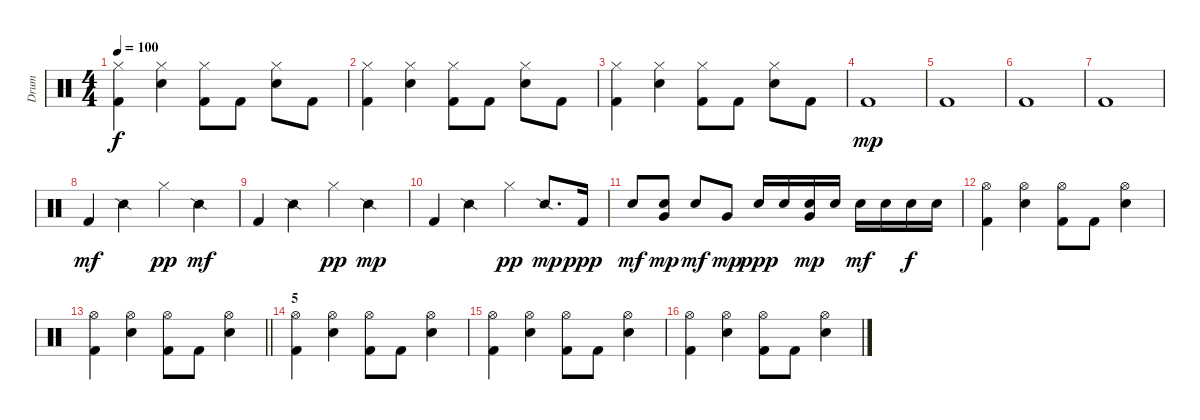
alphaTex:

\track ("Drum" "Drum") {instrument percussion}
\staff {score}
\articulation defaults
\ts (4 4)
\tempo 100
\clef neutral
\ks c
("Hi-Hat (closed)" "Kick (hit) 2").4{dy f} ("Hi-Hat (closed)" "Snare (hit) 2").4 ("Hi-Hat (closed)" "Kick (hit) 2").8 "Kick (hit) 2".8 ("Snare (hit) 2" "Hi-Hat (closed)").8 "Kick (hit) 2".8 |
("Hi-Hat (closed)" "Kick (hit) 2").4 ("Hi-Hat (closed)" "Snare (hit) 2").4 ("Hi-Hat (closed)" "Kick (hit) 2").8 "Kick (hit) 2".8 ("Snare (hit) 2" "Hi-Hat (closed)").8 "Kick (hit) 2".8 |
("Hi-Hat (closed)" "Kick (hit) 2").4 ("Hi-Hat (closed)" "Snare (hit) 2").4 ("Hi-Hat (closed)" "Kick (hit) 2").8 "Kick (hit) 2".8 ("Snare (hit) 2" "Hi-Hat (closed)").8 "Kick (hit) 2".8 |
"Kick (hit) 2".1{dy mp} |
"Kick (hit) 2".1 |
"Kick (hit) 2".1 |
"Kick (hit) 2".1 |
"Kick (hit) 2".4{dy mf} "Snare (side stick) 2".4 "Hi-Hat (closed)".4{dy pp} "Snare (side stick) 2".4{dy mf} |
"Kick (hit) 2".4 "Snare (side stick) 2".4 "Hi-Hat (closed)".4{dy pp} "Snare (side stick) 2".4{dy mp} |
"Kick (hit) 2".4 "Snare (side stick) 2".4 "Hi-Hat (closed)".4{dy pp} "Snare (side stick) 2".8{d dy mp} "Kick (hit) 2".16{dy ppp} |
"Snare (hit) 2".8{dy mf} ("Snare (hit) 2" "Very Low Tom (hit)").8{dy mp} "Snare (hit) 2".8{dy mf} "Very Low Tom (hit)".8{dy mp} "Snare (hit) 2".16{dy ppp} "Snare (hit) 2".16 ("Snare (hit) 2" "Very Low Tom (hit)").16{dy mp} "Snare (hit) 2".16 "Snare (hit) 2".16{dy mf} "Snare (hit) 2".16 "Snare (hit) 2".16{dy f} "Snare (hit) 2".16 |
("Kick (hit) 2" "Hi-Hat (open)").4 ("Snare (hit) 2" "Hi-Hat (open)").4 ("Kick (hit) 2" "Hi-Hat (open)").8 "Kick (hit) 2".8 ("Snare (hit) 2" "Hi-Hat (open)").4 |
\barLineRight lightlight
("Kick (hit) 2" "Hi-Hat (open)").4 ("Snare (hit) 2" "Hi-Hat (open)").4 ("Kick (hit) 2" "Hi-Hat (open)").8 "Kick (hit) 2".8 ("Snare (hit) 2" "Hi-Hat (open)").4 |
\section ("" "5")
("Kick (hit) 2" "Hi-Hat (open)").4 ("Snare (hit) 2" "Hi-Hat (open)").4 ("Kick (hit) 2" "Hi-Hat (open)").8 "Kick (hit) 2".8 ("Snare (hit) 2" "Hi-Hat (open)").4 |
("Kick (hit) 2" "Hi-Hat (open)").4 ("Snare (hit) 2" "Hi-Hat (open)").4 ("Kick (hit) 2" "Hi-Hat (open)").8 "Kick (hit) 2".8 ("Snare (hit) 2" "Hi-Hat (open)").4 |
("Kick (hit) 2" "Hi-Hat (open)").4 ("Snare (hit) 2" "Hi-Hat (open)").4 ("Kick (hit) 2" "Hi-Hat (open)").8 "Kick (hit) 2".8 ("Snare (hit) 2" "Hi-Hat (open)").4
